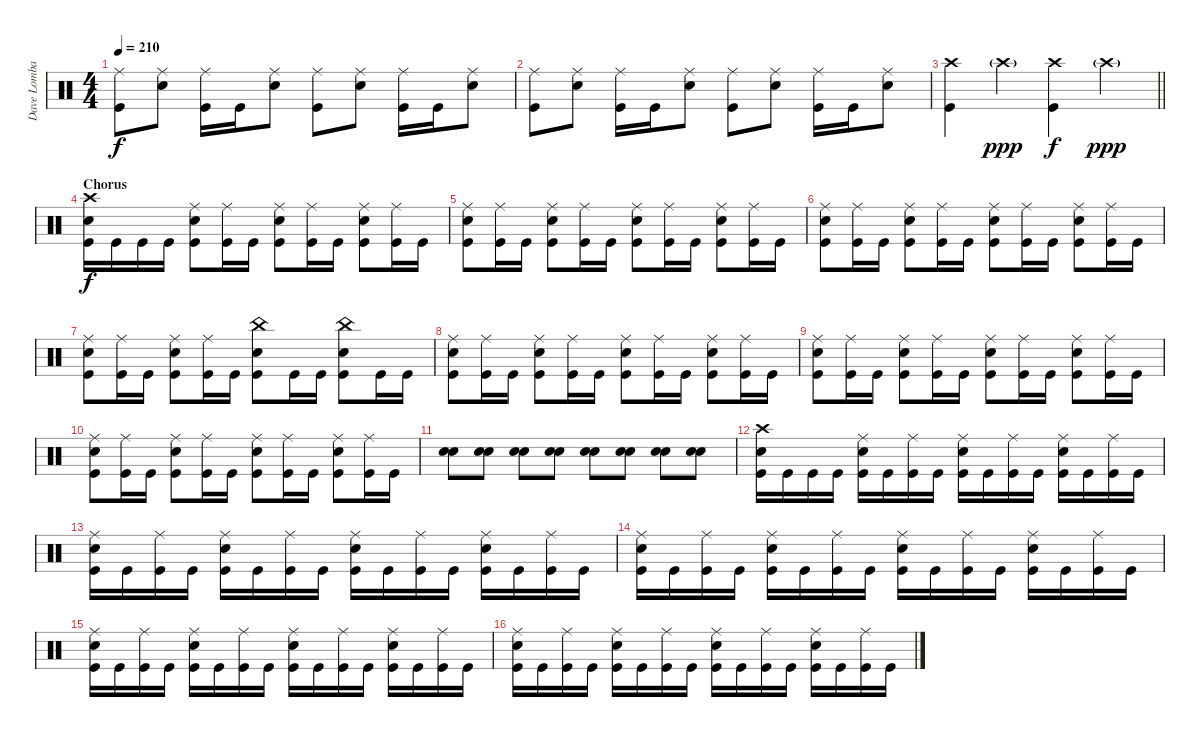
\track ("Dave Lombardo" "Dave Lomba") {instrument percussion}
\staff {score}
\articulation defaults
\ts (4 4)
\tempo 210
\clef neutral
\ks c
("Ride (middle)" "Kick (hit)").8{dy f} ("Ride (middle)" "Electric Snare (hit)").8 ("Ride (middle)" "Kick (hit)").16 "Kick (hit)".16 ("Ride (middle)" "Electric Snare (hit)").8 ("Ride (middle)" "Kick (hit)").8 ("Ride (middle)" "Electric Snare (hit)").8 ("Ride (middle)" "Kick (hit)").16 "Kick (hit)".16 ("Ride (middle)" "Electric Snare (hit)").8 |
("Ride (middle)" "Kick (hit)").8 ("Ride (middle)" "Electric Snare (hit)").8 ("Ride (middle)" "Kick (hit)").16 "Kick (hit)".16 ("Ride (middle)" "Electric Snare (hit)").8 ("Ride (middle)" "Kick (hit)").8 ("Ride (middle)" "Electric Snare (hit)").8 ("Ride (middle)" "Kick (hit)").16 "Kick (hit)".16 ("Ride (middle)" "Electric Snare (hit)").8 |
\barLineRight lightlight
("Crash high (hit)" "Kick (hit)").4 "Crash high (hit)"{g}.4{dy ppp} ("Crash high (hit)" "Kick (hit)").4{dy f} "Crash high (hit)"{g}.4{dy ppp} |
\section ("" "Chorus")
("Crash high (hit)" "Electric Snare (hit)" "Kick (hit)").16{dy f} "Kick (hit)".16 "Kick (hit)".16 "Kick (hit)".16 ("Ride (middle)" "Electric Snare (hit)" "Kick (hit)").8 ("Ride (middle)" "Kick (hit)").16 "Kick (hit)".16 ("Ride (middle)" "Electric Snare (hit)" "Kick (hit)").8 ("Ride (middle)" "Kick (hit)").16 "Kick (hit)".16 ("Ride (middle)" "Electric Snare (hit)" "Kick (hit)").8 ("Ride (middle)" "Kick (hit)").16 "Kick (hit)".16 |
("Ride (middle)" "Electric Snare (hit)" "Kick (hit)").8 ("Ride (middle)" "Kick (hit)").16 "Kick (hit)".16 ("Ride (middle)" "Electric Snare (hit)" "Kick (hit)").8 ("Ride (middle)" "Kick (hit)").16 "Kick (hit)".16 ("Ride (middle)" "Electric Snare (hit)" "Kick (hit)").8 ("Ride (middle)" "Kick (hit)").16 "Kick (hit)".16 ("Ride (middle)" "Electric Snare (hit)" "Kick (hit)").8 ("Ride (middle)" "Kick (hit)").16 "Kick (hit)".16 |
("Ride (middle)" "Electric Snare (hit)" "Kick (hit)").8 ("Ride (middle)" "Kick (hit)").16 "Kick (hit)".16 ("Ride (middle)" "Electric Snare (hit)" "Kick (hit)").8 ("Ride (middle)" "Kick (hit)").16 "Kick (hit)".16 ("Ride (middle)" "Electric Snare (hit)" "Kick (hit)").8 ("Ride (middle)" "Kick (hit)").16 "Kick (hit)".16 ("Ride (middle)" "Electric Snare (hit)" "Kick (hit)").8 ("Ride (middle)" "Kick (hit)").16 "Kick (hit)".16 |
("Ride (middle)" "Electric Snare (hit)" "Kick (hit)").8 ("Ride (middle)" "Kick (hit)").16 "Kick (hit)".16 ("Ride (middle)" "Electric Snare (hit)" "Kick (hit)").8 ("Ride (middle)" "Kick (hit)").16 "Kick (hit)".16 ("China (hit)" "Electric Snare (hit)" "Kick (hit)").8 "Kick (hit)".16 "Kick (hit)".16 ("China (hit)" "Electric Snare (hit)" "Kick (hit)").8 "Kick (hit)".16 "Kick (hit)".16 |
("Ride (middle)" "Electric Snare (hit)" "Kick (hit)").8 ("Ride (middle)" "Kick (hit)").16 "Kick (hit)".16 ("Ride (middle)" "Electric Snare (hit)" "Kick (hit)").8 ("Ride (middle)" "Kick (hit)").16 "Kick (hit)".16 ("Ride (middle)" "Electric Snare (hit)" "Kick (hit)").8 ("Ride (middle)" "Kick (hit)").16 "Kick (hit)".16 ("Ride (middle)" "Electric Snare (hit)" "Kick (hit)").8 ("Ride (middle)" "Kick (hit)").16 "Kick (hit)".16 |
("Ride (middle)" "Electric Snare (hit)" "Kick (hit)").8 ("Ride (middle)" "Kick (hit)").16 "Kick (hit)".16 ("Ride (middle)" "Electric Snare (hit)" "Kick (hit)").8 ("Ride (middle)" "Kick (hit)").16 "Kick (hit)".16 ("Ride (middle)" "Electric Snare (hit)" "Kick (hit)").8 ("Ride (middle)" "Kick (hit)").16 "Kick (hit)".16 ("Ride (middle)" "Electric Snare (hit)" "Kick (hit)").8 ("Ride (middle)" "Kick (hit)").16 "Kick (hit)".16 |
("Ride (middle)" "Electric Snare (hit)" "Kick (hit)").8 ("Ride (middle)" "Kick (hit)").16 "Kick (hit)".16 ("Ride (middle)" "Electric Snare (hit)" "Kick (hit)").8 ("Ride (middle)" "Kick (hit)").16 "Kick (hit)".16 ("Ride (middle)" "Electric Snare (hit)" "Kick (hit)").8 ("Ride (middle)" "Kick (hit)").16 "Kick (hit)".16 ("Ride (middle)" "Electric Snare (hit)" "Kick (hit)").8 ("Ride (middle)" "Kick (hit)").16 "Kick (hit)".16 |
("Snare (hit) 2" "Electric Snare (hit)").8 ("Snare (hit) 2" "Electric Snare (hit)").8 ("Snare (hit) 2" "Electric Snare (hit)").8 ("Snare (hit) 2" "Electric Snare (hit)").8 ("Snare (hit) 2" "Electric Snare (hit)").8 ("Snare (hit) 2" "Electric Snare (hit)").8 ("Snare (hit) 2" "Electric Snare (hit)").8 ("Snare (hit) 2" "Electric Snare (hit)").8 |
("Crash high (hit)" "Electric Snare (hit)" "Kick (hit)").16 "Kick (hit)".16 "Kick (hit)".16 "Kick (hit)".16 ("Ride (middle)" "Electric Snare (hit)" "Kick (hit)").16 "Kick (hit)".16 ("Ride (middle)" "Kick (hit)").16 "Kick (hit)".16 ("Ride (middle)" "Electric Snare (hit)" "Kick (hit)").16 "Kick (hit)".16 ("Ride (middle)" "Kick (hit)").16 "Kick (hit)".16 ("Ride (middle)" "Electric Snare (hit)" "Kick (hit)").16 "Kick (hit)".16 ("Ride (middle)" "Kick (hit)").16 "Kick (hit)".16 |
("Ride (middle)" "Electric Snare (hit)" "Kick (hit)").16 "Kick (hit)".16 ("Ride (middle)" "Kick (hit)").16 "Kick (hit)".16 ("Ride (middle)" "Electric Snare (hit)" "Kick (hit)").16 "Kick (hit)".16 ("Ride (middle)" "Kick (hit)").16 "Kick (hit)".16 ("Ride (middle)" "Electric Snare (hit)" "Kick (hit)").16 "Kick (hit)".16 ("Ride (middle)" "Kick (hit)").16 "Kick (hit)".16 ("Ride (middle)" "Electric Snare (hit)" "Kick (hit)").16 "Kick (hit)".16 ("Ride (middle)" "Kick (hit)").16 "Kick (hit)".16 |
("Ride (middle)" "Electric Snare (hit)" "Kick (hit)").16 "Kick (hit)".16 ("Ride (middle)" "Kick (hit)").16 "Kick (hit)".16 ("Ride (middle)" "Electric Snare (hit)" "Kick (hit)").16 "Kick (hit)".16 ("Ride (middle)" "Kick (hit)").16 "Kick (hit)".16 ("Ride (middle)" "Electric Snare (hit)" "Kick (hit)").16 "Kick (hit)".16 ("Ride (middle)" "Kick (hit)").16 "Kick (hit)".16 ("Ride (middle)" "Electric Snare (hit)" "Kick (hit)").16 "Kick (hit)".16 ("Ride (middle)" "Kick (hit)").16 "Kick (hit)".16 |
("Ride (middle)" "Electric Snare (hit)" "Kick (hit)").16 "Kick (hit)".16 ("Ride (middle)" "Kick (hit)").16 "Kick (hit)".16 ("Ride (middle)" "Electric Snare (hit)" "Kick (hit)").16 "Kick (hit)".16 ("Ride (middle)" "Kick (hit)").16 "Kick (hit)".16 ("Ride (middle)" "Electric Snare (hit)" "Kick (hit)").16 "Kick (hit)".16 ("Ride (middle)" "Kick (hit)").16 "Kick (hit)".16 ("Ride (middle)" "Electric Snare (hit)" "Kick (hit)").16 "Kick (hit)".16 ("Ride (middle)" "Kick (hit)").16 "Kick (hit)".16 |
("Ride (middle)" "Electric Snare (hit)" "Kick (hit)").16 "Kick (hit)".16 ("Ride (middle)" "Kick (hit)").16 "Kick (hit)".16 ("Ride (middle)" "Electric Snare (hit)" "Kick (hit)").16 "Kick (hit)".16 ("Ride (middle)" "Kick (hit)").16 "Kick (hit)".16 ("Ride (middle)" "Electric Snare (hit)" "Kick (hit)").16 "Kick (hit)".16 ("Ride (middle)" "Kick (hit)").16 "Kick (hit)".16 ("Ride (middle)" "Electric Snare (hit)" "Kick (hit)").16 "Kick (hit)".16 ("Ride (middle)" "Kick (hit)").16 "Kick (hit)".16
